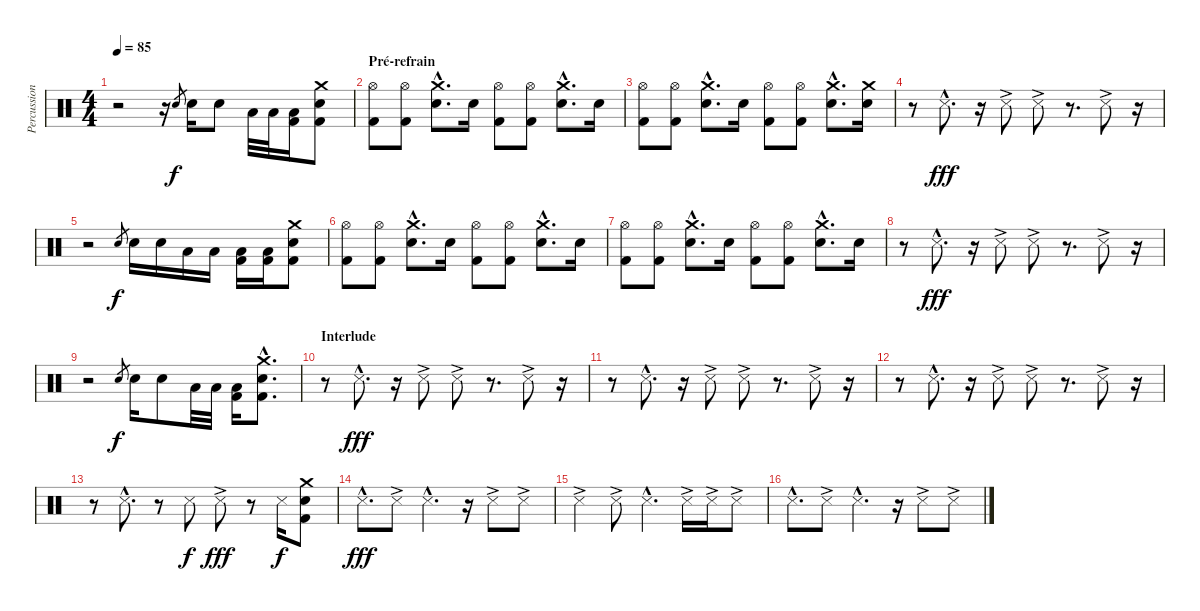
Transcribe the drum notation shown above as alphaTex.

\track ("Percussions" "Percussion") {instrument percussion}
\staff {score}
\articulation defaults
\ts (4 4)
\tempo 85
\clef neutral
\ks c
r.2{dy fff} r.16 "Snare (hit) 2".8{gr dy f} "Snare (hit) 2".16 "Snare (hit) 2".8 "Low Tom (hit)".32 "Low Floor Tom (hit)".32 ("Low Floor Tom (hit)" "Kick (hit) 2").16 ("Crash medium (hit)" "Snare (hit) 2" "Kick (hit) 2").8 |
\section ("" "Pré-refrain")
("Hi-Hat (open)" "Kick (hit) 2").8 ("Hi-Hat (open)" "Kick (hit) 2").8 ("Crash medium (hit)"{hac} "Snare (hit) 2"{hac}).8{d} "Snare (hit) 2".16 ("Hi-Hat (open)" "Kick (hit) 2").8 ("Hi-Hat (open)" "Kick (hit) 2").8 ("Crash medium (hit)"{hac} "Snare (hit) 2"{hac}).8{d} "Snare (hit) 2".16 |
("Hi-Hat (open)" "Kick (hit) 2").8 ("Hi-Hat (open)" "Kick (hit) 2").8 ("Crash medium (hit)"{hac} "Snare (hit) 2"{hac}).8{d} "Snare (hit) 2".16 ("Hi-Hat (open)" "Kick (hit) 2").8 ("Hi-Hat (open)" "Kick (hit) 2").8 ("Crash medium (hit)"{hac} "Snare (hit) 2"{hac}).8{d} ("Crash medium (hit)" "Snare (hit) 2").16 |
r.8 "Snare (side stick) 3"{hac}.8{d dy fff} r.16 "Snare (side stick) 3"{ac}.8 "Snare (side stick) 3"{ac}.8 r.8{d} "Snare (side stick) 3"{ac}.8 r.16 |
r.2 "Snare (hit) 2".8{gr dy f} "Snare (hit) 2".16 "Snare (hit) 2".16 "Low Tom (hit)".16 "Low Floor Tom (hit)".16 ("Low Floor Tom (hit)" "Kick (hit) 2").16 ("Low Floor Tom (hit)" "Kick (hit) 2").16 ("Crash medium (hit)" "Snare (hit) 2" "Kick (hit) 2").8 |
("Hi-Hat (open)" "Kick (hit) 2").8 ("Hi-Hat (open)" "Kick (hit) 2").8 ("Crash medium (hit)"{hac} "Snare (hit) 2"{hac}).8{d} "Snare (hit) 2".16 ("Hi-Hat (open)" "Kick (hit) 2").8 ("Hi-Hat (open)" "Kick (hit) 2").8 ("Crash medium (hit)"{hac} "Snare (hit) 2"{hac}).8{d} "Snare (hit) 2".16 |
("Hi-Hat (open)" "Kick (hit) 2").8 ("Hi-Hat (open)" "Kick (hit) 2").8 ("Crash medium (hit)"{hac} "Snare (hit) 2"{hac}).8{d} "Snare (hit) 2".16 ("Hi-Hat (open)" "Kick (hit) 2").8 ("Hi-Hat (open)" "Kick (hit) 2").8 ("Crash medium (hit)"{hac} "Snare (hit) 2"{hac}).8{d} "Snare (hit) 2".16 |
r.8 "Snare (side stick) 3"{hac}.8{d dy fff} r.16 "Snare (side stick) 3"{ac}.8 "Snare (side stick) 3"{ac}.8 r.8{d} "Snare (side stick) 3"{ac}.8 r.16 |
r.2 "Snare (hit) 2".8{gr dy f} "Snare (hit) 2".16 "Snare (hit) 2".8 "Low Tom (hit)".32 "Low Floor Tom (hit)".32 ("Low Floor Tom (hit)" "Kick (hit) 2").16 ("Crash medium (hit)"{hac} "Snare (hit) 2"{hac} "Kick (hit) 2"{hac}).8{d} |
\section ("" "Interlude")
r.8 "Snare (side stick) 3"{hac}.8{d dy fff} r.16 "Snare (side stick) 3"{ac}.8 "Snare (side stick) 3"{ac}.8 r.8{d} "Snare (side stick) 3"{ac}.8 r.16 |
r.8 "Snare (side stick) 3"{hac}.8{d} r.16 "Snare (side stick) 3"{ac}.8 "Snare (side stick) 3"{ac}.8 r.8{d} "Snare (side stick) 3"{ac}.8 r.16 |
r.8 "Snare (side stick) 3"{hac}.8{d} r.16 "Snare (side stick) 3"{ac}.8 "Snare (side stick) 3"{ac}.8 r.8{d} "Snare (side stick) 3"{ac}.8 r.16 |
r.8 "Snare (side stick) 3"{hac}.8{d} r.8 "Snare (side stick) 3".8{dy f} "Snare (side stick) 3"{ac}.8{dy fff} r.8 "Snare (side stick) 3".16{dy f} ("Crash medium (hit)" "Snare (hit) 2" "Kick (hit) 2").8 |
"Snare (side stick) 3"{hac}.8{d dy fff} "Snare (side stick) 3"{ac}.8 "Snare (side stick) 3"{hac}.4{d} r.16 "Snare (side stick) 3"{ac}.8 "Snare (side stick) 3"{ac}.8 |
"Snare (side stick) 3"{ac}.4 "Snare (side stick) 3"{ac}.8 "Snare (side stick) 3"{hac}.4{d} "Snare (side stick) 3"{ac}.16 "Snare (side stick) 3"{ac}.16 "Snare (side stick) 3"{ac}.8 |
"Snare (side stick) 3"{hac}.8{d} "Snare (side stick) 3"{ac}.8 "Snare (side stick) 3"{hac}.4{d} r.16 "Snare (side stick) 3"{ac}.8 "Snare (side stick) 3"{ac}.8
